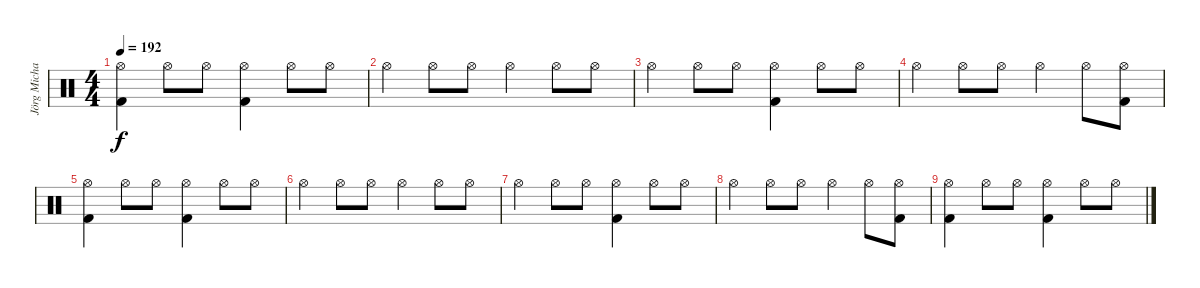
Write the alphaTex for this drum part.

\track ("Jörg Michael" "Jörg Micha") {instrument percussion}
\staff {score}
\articulation defaults
\ts (4 4)
\tempo 192
\clef neutral
\ks c
("Kick (hit) 2" "Hi-Hat (open)").4{dy f volume 9} "Hi-Hat (open)".8{volume 8} "Hi-Hat (open)".8{volume 8} ("Kick (hit) 2" "Hi-Hat (open)").4{volume 8} "Hi-Hat (open)".8{volume 8} "Hi-Hat (open)".8{volume 8} |
"Hi-Hat (open)".4{volume 8} "Hi-Hat (open)".8{volume 8} "Hi-Hat (open)".8{volume 7} "Hi-Hat (open)".4{volume 7} "Hi-Hat (open)".8{volume 7} "Hi-Hat (open)".8{volume 7} |
"Hi-Hat (open)".4{volume 7} "Hi-Hat (open)".8{volume 7} "Hi-Hat (open)".8{volume 6} ("Kick (hit) 2" "Hi-Hat (open)").4{volume 6} "Hi-Hat (open)".8{volume 6} "Hi-Hat (open)".8{volume 6} |
"Hi-Hat (open)".4{volume 6} "Hi-Hat (open)".8{volume 6} "Hi-Hat (open)".8{volume 6} "Hi-Hat (open)".4{volume 5} "Hi-Hat (open)".8{volume 5} ("Kick (hit) 2" "Hi-Hat (open)").8{volume 5} |
("Kick (hit) 2" "Hi-Hat (open)").4{volume 5} "Hi-Hat (open)".8{volume 5} "Hi-Hat (open)".8{volume 4} ("Kick (hit) 2" "Hi-Hat (open)").4{volume 4} "Hi-Hat (open)".8{volume 4} "Hi-Hat (open)".8{volume 4} |
"Hi-Hat (open)".4{volume 4} "Hi-Hat (open)".8{volume 4} "Hi-Hat (open)".8{volume 4} "Hi-Hat (open)".4 "Hi-Hat (open)".8{volume 3} "Hi-Hat (open)".8{volume 3} |
"Hi-Hat (open)".4{volume 3} "Hi-Hat (open)".8{volume 3} "Hi-Hat (open)".8{volume 3} ("Kick (hit) 2" "Hi-Hat (open)").4{volume 2} "Hi-Hat (open)".8{volume 2} "Hi-Hat (open)".8{volume 2} |
"Hi-Hat (open)".4{volume 2} "Hi-Hat (open)".8{volume 2} "Hi-Hat (open)".8{volume 2} "Hi-Hat (open)".4{volume 2} "Hi-Hat (open)".8{volume 1} ("Kick (hit) 2" "Hi-Hat (open)").8{volume 1} |
("Kick (hit) 2" "Hi-Hat (open)").4{volume 1} "Hi-Hat (open)".8{volume 1} "Hi-Hat (open)".8{volume 1} ("Kick (hit) 2" "Hi-Hat (open)").4{volume 0} "Hi-Hat (open)".8{volume 0} "Hi-Hat (open)".8{volume 0}
